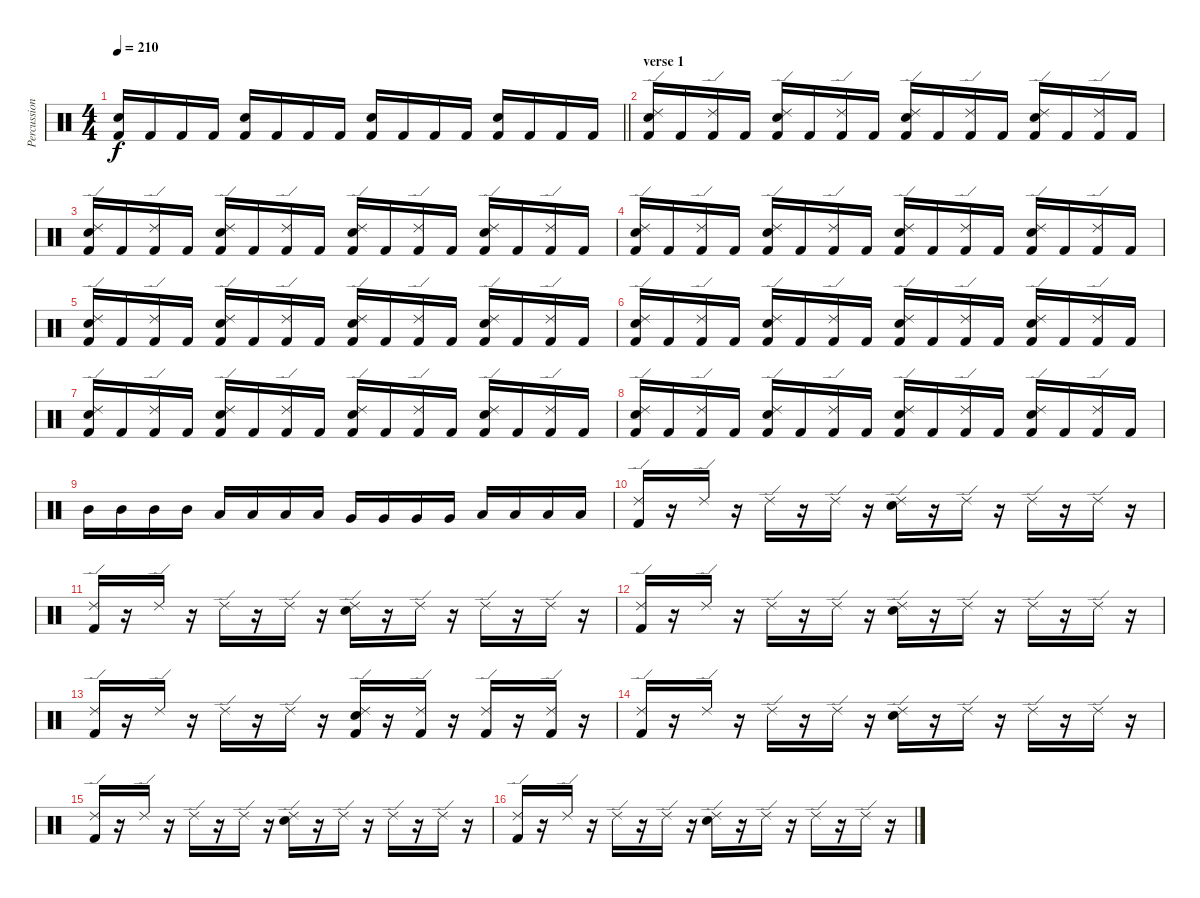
\track ("Percussion" "Percussion") {instrument percussion}
\staff {score}
\articulation defaults
\ts (4 4)
\tempo 210
\clef neutral
\barLineRight lightlight
\ks c
("Snare (hit) 2" "Kick (hit) 2").16{dy f} "Kick (hit) 2".16 "Kick (hit) 2".16 "Kick (hit) 2".16 ("Snare (hit) 2" "Kick (hit) 2").16 "Kick (hit) 2".16 "Kick (hit) 2".16 "Kick (hit) 2".16 ("Snare (hit) 2" "Kick (hit) 2").16 "Kick (hit) 2".16 "Kick (hit) 2".16 "Kick (hit) 2".16 ("Snare (hit) 2" "Kick (hit) 2").16 "Kick (hit) 2".16 "Kick (hit) 2".16 "Kick (hit) 2".16 |
\section ("" "verse 1")
("Ride (edge) 2" "Snare (hit) 2" "Kick (hit) 2").16 "Kick (hit) 2".16 ("Ride (edge) 2" "Kick (hit) 2").16 "Kick (hit) 2".16 ("Ride (edge) 2" "Snare (hit) 2" "Kick (hit) 2").16 "Kick (hit) 2".16 ("Ride (edge) 2" "Kick (hit) 2").16 "Kick (hit) 2".16 ("Ride (edge) 2" "Snare (hit) 2" "Kick (hit) 2").16 "Kick (hit) 2".16 ("Ride (edge) 2" "Kick (hit) 2").16 "Kick (hit) 2".16 ("Ride (edge) 2" "Snare (hit) 2" "Kick (hit) 2").16 "Kick (hit) 2".16 ("Ride (edge) 2" "Kick (hit) 2").16 "Kick (hit) 2".16 |
("Ride (edge) 2" "Snare (hit) 2" "Kick (hit) 2").16 "Kick (hit) 2".16 ("Ride (edge) 2" "Kick (hit) 2").16 "Kick (hit) 2".16 ("Ride (edge) 2" "Snare (hit) 2" "Kick (hit) 2").16 "Kick (hit) 2".16 ("Ride (edge) 2" "Kick (hit) 2").16 "Kick (hit) 2".16 ("Ride (edge) 2" "Snare (hit) 2" "Kick (hit) 2").16 "Kick (hit) 2".16 ("Ride (edge) 2" "Kick (hit) 2").16 "Kick (hit) 2".16 ("Ride (edge) 2" "Snare (hit) 2" "Kick (hit) 2").16 "Kick (hit) 2".16 ("Ride (edge) 2" "Kick (hit) 2").16 "Kick (hit) 2".16 |
("Ride (edge) 2" "Snare (hit) 2" "Kick (hit) 2").16 "Kick (hit) 2".16 ("Ride (edge) 2" "Kick (hit) 2").16 "Kick (hit) 2".16 ("Ride (edge) 2" "Snare (hit) 2" "Kick (hit) 2").16 "Kick (hit) 2".16 ("Ride (edge) 2" "Kick (hit) 2").16 "Kick (hit) 2".16 ("Ride (edge) 2" "Snare (hit) 2" "Kick (hit) 2").16 "Kick (hit) 2".16 ("Ride (edge) 2" "Kick (hit) 2").16 "Kick (hit) 2".16 ("Ride (edge) 2" "Snare (hit) 2" "Kick (hit) 2").16 "Kick (hit) 2".16 ("Ride (edge) 2" "Kick (hit) 2").16 "Kick (hit) 2".16 |
("Ride (edge) 2" "Snare (hit) 2" "Kick (hit) 2").16 "Kick (hit) 2".16 ("Ride (edge) 2" "Kick (hit) 2").16 "Kick (hit) 2".16 ("Ride (edge) 2" "Snare (hit) 2" "Kick (hit) 2").16 "Kick (hit) 2".16 ("Ride (edge) 2" "Kick (hit) 2").16 "Kick (hit) 2".16 ("Ride (edge) 2" "Snare (hit) 2" "Kick (hit) 2").16 "Kick (hit) 2".16 ("Ride (edge) 2" "Kick (hit) 2").16 "Kick (hit) 2".16 ("Ride (edge) 2" "Snare (hit) 2" "Kick (hit) 2").16 "Kick (hit) 2".16 ("Ride (edge) 2" "Kick (hit) 2").16 "Kick (hit) 2".16 |
("Ride (edge) 2" "Snare (hit) 2" "Kick (hit) 2").16 "Kick (hit) 2".16 ("Ride (edge) 2" "Kick (hit) 2").16 "Kick (hit) 2".16 ("Ride (edge) 2" "Snare (hit) 2" "Kick (hit) 2").16 "Kick (hit) 2".16 ("Ride (edge) 2" "Kick (hit) 2").16 "Kick (hit) 2".16 ("Ride (edge) 2" "Snare (hit) 2" "Kick (hit) 2").16 "Kick (hit) 2".16 ("Ride (edge) 2" "Kick (hit) 2").16 "Kick (hit) 2".16 ("Ride (edge) 2" "Snare (hit) 2" "Kick (hit) 2").16 "Kick (hit) 2".16 ("Ride (edge) 2" "Kick (hit) 2").16 "Kick (hit) 2".16 |
("Ride (edge) 2" "Snare (hit) 2" "Kick (hit) 2").16 "Kick (hit) 2".16 ("Ride (edge) 2" "Kick (hit) 2").16 "Kick (hit) 2".16 ("Ride (edge) 2" "Snare (hit) 2" "Kick (hit) 2").16 "Kick (hit) 2".16 ("Ride (edge) 2" "Kick (hit) 2").16 "Kick (hit) 2".16 ("Ride (edge) 2" "Snare (hit) 2" "Kick (hit) 2").16 "Kick (hit) 2".16 ("Ride (edge) 2" "Kick (hit) 2").16 "Kick (hit) 2".16 ("Ride (edge) 2" "Snare (hit) 2" "Kick (hit) 2").16 "Kick (hit) 2".16 ("Ride (edge) 2" "Kick (hit) 2").16 "Kick (hit) 2".16 |
("Ride (edge) 2" "Snare (hit) 2" "Kick (hit) 2").16 "Kick (hit) 2".16 ("Ride (edge) 2" "Kick (hit) 2").16 "Kick (hit) 2".16 ("Ride (edge) 2" "Snare (hit) 2" "Kick (hit) 2").16 "Kick (hit) 2".16 ("Ride (edge) 2" "Kick (hit) 2").16 "Kick (hit) 2".16 ("Ride (edge) 2" "Snare (hit) 2" "Kick (hit) 2").16 "Kick (hit) 2".16 ("Ride (edge) 2" "Kick (hit) 2").16 "Kick (hit) 2".16 ("Ride (edge) 2" "Snare (hit) 2" "Kick (hit) 2").16 "Kick (hit) 2".16 ("Ride (edge) 2" "Kick (hit) 2").16 "Kick (hit) 2".16 |
"Mid Tom (hit)".16 "Mid Tom (hit)".16 "Mid Tom (hit)".16 "Mid Tom (hit)".16 "Low Tom (hit)".16 "Low Tom (hit)".16 "Low Tom (hit)".16 "Low Tom (hit)".16 "Very Low Tom (hit)".16 "Very Low Tom (hit)".16 "Very Low Tom (hit)".16 "Very Low Tom (hit)".16 "Low Floor Tom (hit)".16 "Low Floor Tom (hit)".16 "Low Floor Tom (hit)".16 "Low Floor Tom (hit)".16 |
("Ride (edge) 2" "Kick (hit) 2").16 r.16 "Ride (edge) 2".16 r.16 "Ride (edge) 2".16 r.16 "Ride (edge) 2".16 r.16 ("Ride (edge) 2" "Snare (hit) 2").16 r.16 "Ride (edge) 2".16 r.16 "Ride (edge) 2".16 r.16 "Ride (edge) 2".16 r.16 |
("Ride (edge) 2" "Kick (hit) 2").16 r.16 "Ride (edge) 2".16 r.16 "Ride (edge) 2".16 r.16 "Ride (edge) 2".16 r.16 ("Ride (edge) 2" "Snare (hit) 2").16 r.16 "Ride (edge) 2".16 r.16 "Ride (edge) 2".16 r.16 "Ride (edge) 2".16 r.16 |
("Ride (edge) 2" "Kick (hit) 2").16 r.16 "Ride (edge) 2".16 r.16 "Ride (edge) 2".16 r.16 "Ride (edge) 2".16 r.16 ("Ride (edge) 2" "Snare (hit) 2").16 r.16 "Ride (edge) 2".16 r.16 "Ride (edge) 2".16 r.16 "Ride (edge) 2".16 r.16 |
("Ride (edge) 2" "Kick (hit) 2").16 r.16 "Ride (edge) 2".16 r.16 "Ride (edge) 2".16 r.16 "Ride (edge) 2".16 r.16 ("Ride (edge) 2" "Snare (hit) 2" "Kick (hit) 2").16 r.16 ("Ride (edge) 2" "Kick (hit) 2").16 r.16 ("Ride (edge) 2" "Kick (hit) 2").16 r.16 ("Ride (edge) 2" "Kick (hit) 2").16 r.16 |
("Ride (edge) 2" "Kick (hit) 2").16 r.16 "Ride (edge) 2".16 r.16 "Ride (edge) 2".16 r.16 "Ride (edge) 2".16 r.16 ("Ride (edge) 2" "Snare (hit) 2").16 r.16 "Ride (edge) 2".16 r.16 "Ride (edge) 2".16 r.16 "Ride (edge) 2".16 r.16 |
("Ride (edge) 2" "Kick (hit) 2").16 r.16 "Ride (edge) 2".16 r.16 "Ride (edge) 2".16 r.16 "Ride (edge) 2".16 r.16 ("Ride (edge) 2" "Snare (hit) 2").16 r.16 "Ride (edge) 2".16 r.16 "Ride (edge) 2".16 r.16 "Ride (edge) 2".16 r.16 |
("Ride (edge) 2" "Kick (hit) 2").16 r.16 "Ride (edge) 2".16 r.16 "Ride (edge) 2".16 r.16 "Ride (edge) 2".16 r.16 ("Ride (edge) 2" "Snare (hit) 2").16 r.16 "Ride (edge) 2".16 r.16 "Ride (edge) 2".16 r.16 "Ride (edge) 2".16 r.16
